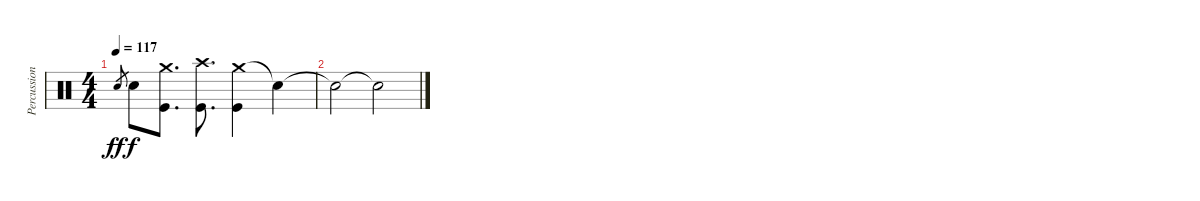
\track ("Percussion" "Percussion") {instrument percussion}
\staff {score}
\articulation defaults
\ts (4 4)
\tempo 117
\clef neutral
\ks c "Snare (hit) 2".8{gr dy ff} "Snare (hit) 2".8{dy f}
("Crash medium (hit)" "Kick (hit)").8{d} ("Crash high (hit)" "Kick (hit)").8{d} ("Crash medium (hit)" "Kick (hit)").4 "Snare (hit)"{t}.4 |
"Snare (hit)"{t}.2 "Snare (hit)"{t}.2
